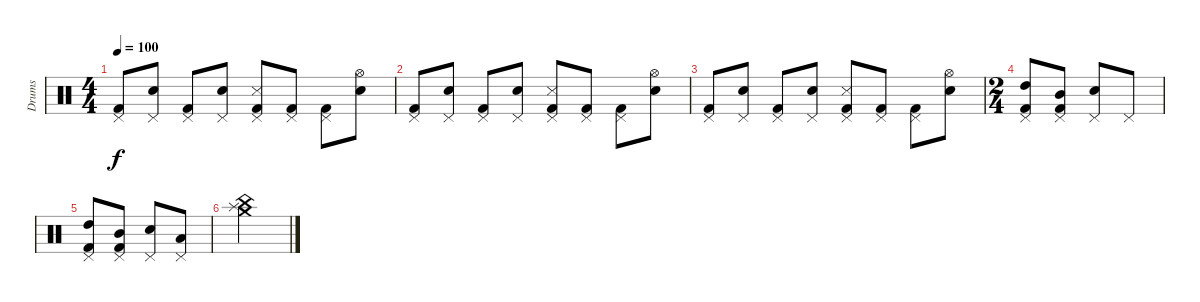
\track ("Drums" "Drums") {instrument percussion}
\staff {score}
\articulation defaults
\ts (4 4)
\tempo 100
\clef neutral
\ks c
("Pedal Hi-Hat (hit)" "Kick (hit) 2").8{dy f} ("Pedal Hi-Hat (hit)" "Snare (hit) 2").8 ("Pedal Hi-Hat (hit)" "Kick (hit) 2").8 ("Pedal Hi-Hat (hit)" "Snare (hit) 2").8 ("Pedal Hi-Hat (hit)" "Kick (hit) 2" "Snare (side stick) 3").8 ("Pedal Hi-Hat (hit)" "Kick (hit) 2").8 ("Pedal Hi-Hat (hit)" "Kick (hit) 2").8 ("Hi-Hat (open)" "Snare (hit) 2").8 |
("Pedal Hi-Hat (hit)" "Kick (hit) 2").8 ("Pedal Hi-Hat (hit)" "Snare (hit) 2").8 ("Pedal Hi-Hat (hit)" "Kick (hit) 2").8 ("Pedal Hi-Hat (hit)" "Snare (hit) 2").8 ("Pedal Hi-Hat (hit)" "Kick (hit) 2" "Snare (side stick) 3").8 ("Pedal Hi-Hat (hit)" "Kick (hit) 2").8 ("Pedal Hi-Hat (hit)" "Kick (hit) 2").8 ("Hi-Hat (open)" "Snare (hit) 2").8 |
("Pedal Hi-Hat (hit)" "Kick (hit) 2").8 ("Pedal Hi-Hat (hit)" "Snare (hit) 2").8 ("Pedal Hi-Hat (hit)" "Kick (hit) 2").8 ("Pedal Hi-Hat (hit)" "Snare (hit) 2").8 ("Pedal Hi-Hat (hit)" "Kick (hit) 2" "Snare (side stick) 3").8 ("Pedal Hi-Hat (hit)" "Kick (hit) 2").8 ("Pedal Hi-Hat (hit)" "Kick (hit) 2").8 ("Hi-Hat (open)" "Snare (hit) 2").8 |
\ts (2 4)
("Pedal Hi-Hat (hit)" "High Tom (hit)" "Kick (hit) 2").8 ("Pedal Hi-Hat (hit)" "Mid Tom (hit)" "Kick (hit) 2").8 ("Pedal Hi-Hat (hit)" "Snare (hit) 2").8 "Pedal Hi-Hat (hit)".8 |
("Pedal Hi-Hat (hit)" "High Tom (hit)" "Kick (hit) 2").8 ("Pedal Hi-Hat (hit)" "Mid Tom (hit)" "Kick (hit) 2").8 ("Pedal Hi-Hat (hit)" "Snare (hit) 2").8 ("Pedal Hi-Hat (hit)" "Low Tom (hit)").8 |
("China (hit)" "Splash (hit)" "Crash medium (hit)").2
